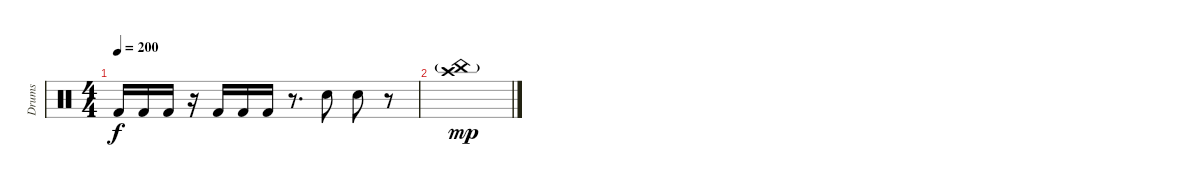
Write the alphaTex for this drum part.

\track ("Drums" "Drums") {instrument percussion}
\staff {score}
\articulation defaults
\ts (4 4)
\tempo 200
\clef neutral
\ks c "Kick (hit) 2".16{dy f} "Kick (hit) 2".16 "Kick (hit) 2".16
r.16 "Kick (hit) 2".16 "Kick (hit) 2".16 "Kick (hit) 2".16 r.8{d} "Electric Snare (hit)".8 "Electric Snare (hit)".8 r.8 |
("Crash high (hit)" "China (hit)"{g}).1{dy mp}
